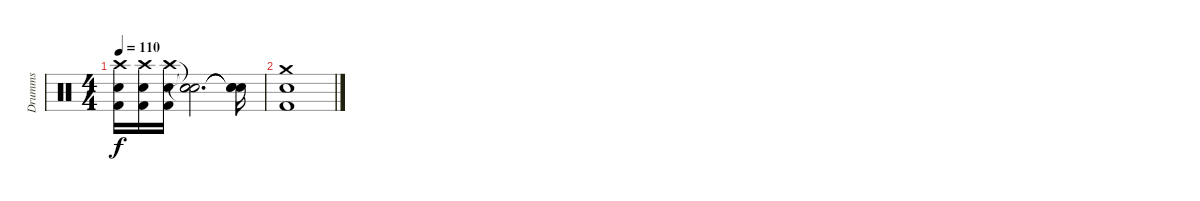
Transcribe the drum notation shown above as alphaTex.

\track ("Drumms" "Drumms") {instrument percussion}
\staff {score}
\articulation defaults
\ts (4 4)
\tempo 110
\clef neutral
\ks c
("Kick (hit) 2" "Snare (hit) 2" "Crash high (hit)").16{dy f} ("Kick (hit) 2" "Snare (hit) 2" "Crash high (hit)").16 ("Kick (hit) 2" "Snare (hit) 2" "Crash high (hit)").16 ("Snare (hit)"{t} "Snare (hit)"{t} "Snare (hit)"{t}).2{d} ("Snare (hit)"{t} "Snare (hit)"{t} "Snare (hit)"{t}).16 |
("Kick (hit) 2" "Snare (hit) 2" "Crash medium (hit)").1
